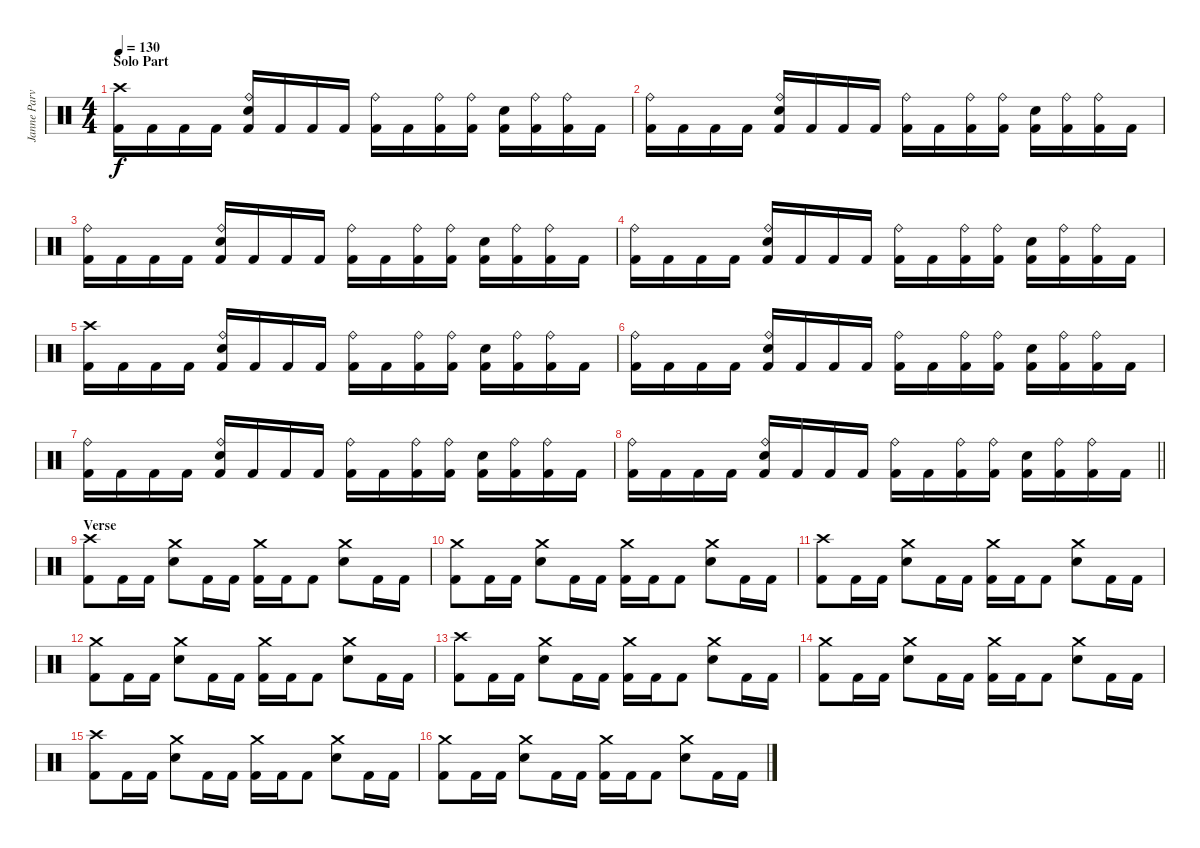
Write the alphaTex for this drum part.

\track ("Janne Parviainen" "Janne Parv") {instrument percussion}
\staff {score}
\articulation defaults
\ts (4 4)
\section ("" "Solo Part")
\tempo 130
\clef neutral
\ks c
("Crash high (hit)" "Kick (hit) 2").16{dy f} "Kick (hit) 2".16 "Kick (hit) 2".16 "Kick (hit) 2".16 ("Ride (bell)" "Electric Snare (hit)" "Kick (hit) 2").16 "Kick (hit) 2".16 "Kick (hit) 2".16 "Kick (hit) 2".16 ("Ride (bell)" "Kick (hit) 2").16 "Kick (hit) 2".16 ("Ride (bell)" "Kick (hit) 2").16 ("Ride (bell)" "Kick (hit) 2").16 ("Electric Snare (hit)" "Kick (hit) 2").16 ("Ride (bell)" "Kick (hit) 2").16 ("Ride (bell)" "Kick (hit) 2").16 "Kick (hit) 2".16 |
("Ride (bell)" "Kick (hit) 2").16 "Kick (hit) 2".16 "Kick (hit) 2".16 "Kick (hit) 2".16 ("Ride (bell)" "Electric Snare (hit)" "Kick (hit) 2").16 "Kick (hit) 2".16 "Kick (hit) 2".16 "Kick (hit) 2".16 ("Ride (bell)" "Kick (hit) 2").16 "Kick (hit) 2".16 ("Ride (bell)" "Kick (hit) 2").16 ("Ride (bell)" "Kick (hit) 2").16 ("Electric Snare (hit)" "Kick (hit) 2").16 ("Ride (bell)" "Kick (hit) 2").16 ("Ride (bell)" "Kick (hit) 2").16 "Kick (hit) 2".16 |
("Ride (bell)" "Kick (hit) 2").16 "Kick (hit) 2".16 "Kick (hit) 2".16 "Kick (hit) 2".16 ("Ride (bell)" "Electric Snare (hit)" "Kick (hit) 2").16 "Kick (hit) 2".16 "Kick (hit) 2".16 "Kick (hit) 2".16 ("Ride (bell)" "Kick (hit) 2").16 "Kick (hit) 2".16 ("Ride (bell)" "Kick (hit) 2").16 ("Ride (bell)" "Kick (hit) 2").16 ("Electric Snare (hit)" "Kick (hit) 2").16 ("Ride (bell)" "Kick (hit) 2").16 ("Ride (bell)" "Kick (hit) 2").16 "Kick (hit) 2".16 |
("Ride (bell)" "Kick (hit) 2").16 "Kick (hit) 2".16 "Kick (hit) 2".16 "Kick (hit) 2".16 ("Ride (bell)" "Electric Snare (hit)" "Kick (hit) 2").16 "Kick (hit) 2".16 "Kick (hit) 2".16 "Kick (hit) 2".16 ("Ride (bell)" "Kick (hit) 2").16 "Kick (hit) 2".16 ("Ride (bell)" "Kick (hit) 2").16 ("Ride (bell)" "Kick (hit) 2").16 ("Electric Snare (hit)" "Kick (hit) 2").16 ("Ride (bell)" "Kick (hit) 2").16 ("Ride (bell)" "Kick (hit) 2").16 "Kick (hit) 2".16 |
("Crash high (hit)" "Kick (hit) 2").16 "Kick (hit) 2".16 "Kick (hit) 2".16 "Kick (hit) 2".16 ("Ride (bell)" "Electric Snare (hit)" "Kick (hit) 2").16 "Kick (hit) 2".16 "Kick (hit) 2".16 "Kick (hit) 2".16 ("Ride (bell)" "Kick (hit) 2").16 "Kick (hit) 2".16 ("Ride (bell)" "Kick (hit) 2").16 ("Ride (bell)" "Kick (hit) 2").16 ("Electric Snare (hit)" "Kick (hit) 2").16 ("Ride (bell)" "Kick (hit) 2").16 ("Ride (bell)" "Kick (hit) 2").16 "Kick (hit) 2".16 |
("Ride (bell)" "Kick (hit) 2").16 "Kick (hit) 2".16 "Kick (hit) 2".16 "Kick (hit) 2".16 ("Ride (bell)" "Electric Snare (hit)" "Kick (hit) 2").16 "Kick (hit) 2".16 "Kick (hit) 2".16 "Kick (hit) 2".16 ("Ride (bell)" "Kick (hit) 2").16 "Kick (hit) 2".16 ("Ride (bell)" "Kick (hit) 2").16 ("Ride (bell)" "Kick (hit) 2").16 ("Electric Snare (hit)" "Kick (hit) 2").16 ("Ride (bell)" "Kick (hit) 2").16 ("Ride (bell)" "Kick (hit) 2").16 "Kick (hit) 2".16 |
("Ride (bell)" "Kick (hit) 2").16 "Kick (hit) 2".16 "Kick (hit) 2".16 "Kick (hit) 2".16 ("Ride (bell)" "Electric Snare (hit)" "Kick (hit) 2").16 "Kick (hit) 2".16 "Kick (hit) 2".16 "Kick (hit) 2".16 ("Ride (bell)" "Kick (hit) 2").16 "Kick (hit) 2".16 ("Ride (bell)" "Kick (hit) 2").16 ("Ride (bell)" "Kick (hit) 2").16 ("Electric Snare (hit)" "Kick (hit) 2").16 ("Ride (bell)" "Kick (hit) 2").16 ("Ride (bell)" "Kick (hit) 2").16 "Kick (hit) 2".16 |
\barLineRight lightlight
("Ride (bell)" "Kick (hit) 2").16 "Kick (hit) 2".16 "Kick (hit) 2".16 "Kick (hit) 2".16 ("Ride (bell)" "Electric Snare (hit)" "Kick (hit) 2").16 "Kick (hit) 2".16 "Kick (hit) 2".16 "Kick (hit) 2".16 ("Ride (bell)" "Kick (hit) 2").16 "Kick (hit) 2".16 ("Ride (bell)" "Kick (hit) 2").16 ("Ride (bell)" "Kick (hit) 2").16 ("Electric Snare (hit)" "Kick (hit) 2").16 ("Ride (bell)" "Kick (hit) 2").16 ("Ride (bell)" "Kick (hit) 2").16 "Kick (hit) 2".16 |
\section ("" "Verse")
("Crash high (hit)" "Kick (hit) 2").8 "Kick (hit) 2".16 "Kick (hit) 2".16 ("Crash medium (hit)" "Electric Snare (hit)").8 "Kick (hit) 2".16 "Kick (hit) 2".16 ("Crash medium (hit)" "Kick (hit) 2").16 "Kick (hit) 2".16 "Kick (hit) 2".8 ("Crash medium (hit)" "Electric Snare (hit)").8 "Kick (hit) 2".16 "Kick (hit) 2".16 |
("Crash medium (hit)" "Kick (hit) 2").8 "Kick (hit) 2".16 "Kick (hit) 2".16 ("Crash medium (hit)" "Electric Snare (hit)").8 "Kick (hit) 2".16 "Kick (hit) 2".16 ("Crash medium (hit)" "Kick (hit) 2").16 "Kick (hit) 2".16 "Kick (hit) 2".8 ("Crash medium (hit)" "Electric Snare (hit)").8 "Kick (hit) 2".16 "Kick (hit) 2".16 |
("Crash high (hit)" "Kick (hit) 2").8 "Kick (hit) 2".16 "Kick (hit) 2".16 ("Crash medium (hit)" "Electric Snare (hit)").8 "Kick (hit) 2".16 "Kick (hit) 2".16 ("Crash medium (hit)" "Kick (hit) 2").16 "Kick (hit) 2".16 "Kick (hit) 2".8 ("Crash medium (hit)" "Electric Snare (hit)").8 "Kick (hit) 2".16 "Kick (hit) 2".16 |
("Crash medium (hit)" "Kick (hit) 2").8 "Kick (hit) 2".16 "Kick (hit) 2".16 ("Crash medium (hit)" "Electric Snare (hit)").8 "Kick (hit) 2".16 "Kick (hit) 2".16 ("Crash medium (hit)" "Kick (hit) 2").16 "Kick (hit) 2".16 "Kick (hit) 2".8 ("Crash medium (hit)" "Electric Snare (hit)").8 "Kick (hit) 2".16 "Kick (hit) 2".16 |
("Crash high (hit)" "Kick (hit) 2").8 "Kick (hit) 2".16 "Kick (hit) 2".16 ("Crash medium (hit)" "Electric Snare (hit)").8 "Kick (hit) 2".16 "Kick (hit) 2".16 ("Crash medium (hit)" "Kick (hit) 2").16 "Kick (hit) 2".16 "Kick (hit) 2".8 ("Crash medium (hit)" "Electric Snare (hit)").8 "Kick (hit) 2".16 "Kick (hit) 2".16 |
("Crash medium (hit)" "Kick (hit) 2").8 "Kick (hit) 2".16 "Kick (hit) 2".16 ("Crash medium (hit)" "Electric Snare (hit)").8 "Kick (hit) 2".16 "Kick (hit) 2".16 ("Crash medium (hit)" "Kick (hit) 2").16 "Kick (hit) 2".16 "Kick (hit) 2".8 ("Crash medium (hit)" "Electric Snare (hit)").8 "Kick (hit) 2".16 "Kick (hit) 2".16 |
("Crash high (hit)" "Kick (hit) 2").8 "Kick (hit) 2".16 "Kick (hit) 2".16 ("Crash medium (hit)" "Electric Snare (hit)").8 "Kick (hit) 2".16 "Kick (hit) 2".16 ("Crash medium (hit)" "Kick (hit) 2").16 "Kick (hit) 2".16 "Kick (hit) 2".8 ("Crash medium (hit)" "Electric Snare (hit)").8 "Kick (hit) 2".16 "Kick (hit) 2".16 |
("Crash medium (hit)" "Kick (hit) 2").8 "Kick (hit) 2".16 "Kick (hit) 2".16 ("Crash medium (hit)" "Electric Snare (hit)").8 "Kick (hit) 2".16 "Kick (hit) 2".16 ("Crash medium (hit)" "Kick (hit) 2").16 "Kick (hit) 2".16 "Kick (hit) 2".8 ("Crash medium (hit)" "Electric Snare (hit)").8 "Kick (hit) 2".16 "Kick (hit) 2".16
